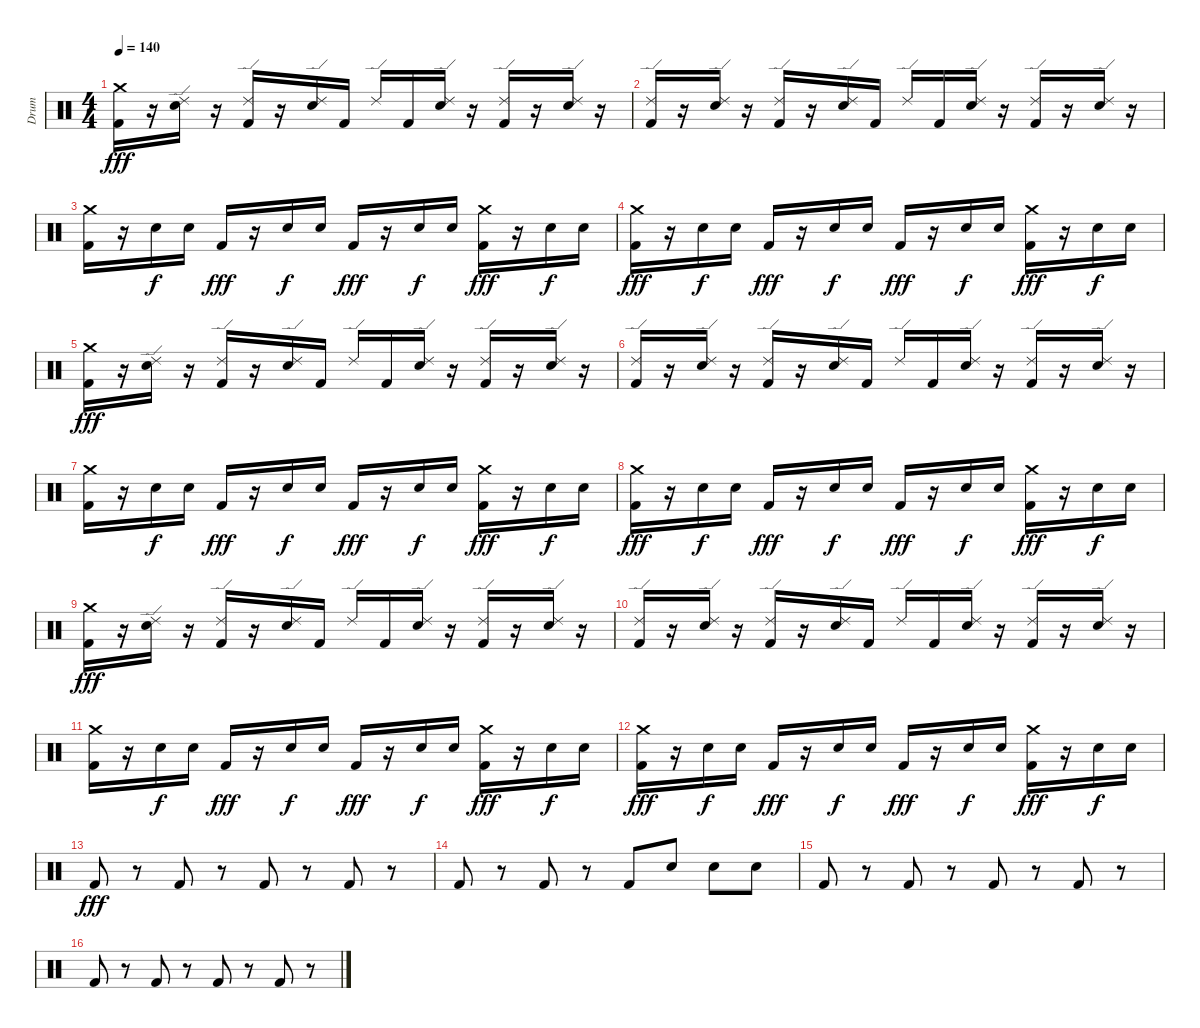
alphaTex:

\track ("Drum" "Drum") {instrument percussion}
\staff {score}
\articulation defaults
\ts (4 4)
\tempo 140
\clef neutral
\ks c
("Kick (hit) 2" "Crash medium (hit)").16{dy fff} r.16 ("Snare (hit) 2" "Ride (edge) 2").16 r.16 ("Kick (hit) 2" "Ride (edge) 2").16 r.16 ("Snare (hit) 2" "Ride (edge) 2").16 "Kick (hit) 2".16 "Ride (edge) 2".16 "Kick (hit) 2".16 ("Snare (hit) 2" "Ride (edge) 2").16 r.16 ("Kick (hit) 2" "Ride (edge) 2").16 r.16 ("Snare (hit) 2" "Ride (edge) 2").16 r.16 |
("Kick (hit) 2" "Ride (edge) 2").16 r.16 ("Snare (hit) 2" "Ride (edge) 2").16 r.16 ("Kick (hit) 2" "Ride (edge) 2").16 r.16 ("Snare (hit) 2" "Ride (edge) 2").16 "Kick (hit) 2".16 "Ride (edge) 2".16 "Kick (hit) 2".16 ("Snare (hit) 2" "Ride (edge) 2").16 r.16 ("Kick (hit) 2" "Ride (edge) 2").16 r.16 ("Snare (hit) 2" "Ride (edge) 2").16 r.16 |
("Kick (hit) 2" "Crash medium (hit)").16 r.16 "Snare (hit) 2".16{dy f} "Snare (hit) 2".16 "Kick (hit) 2".16{dy fff} r.16 "Snare (hit) 2".16{dy f} "Snare (hit) 2".16 "Kick (hit) 2".16{dy fff} r.16 "Snare (hit) 2".16{dy f} "Snare (hit) 2".16 ("Kick (hit) 2" "Crash medium (hit)").16{dy fff} r.16 "Snare (hit) 2".16{dy f} "Snare (hit) 2".16 |
("Kick (hit) 2" "Crash medium (hit)").16{dy fff} r.16 "Snare (hit) 2".16{dy f} "Snare (hit) 2".16 "Kick (hit) 2".16{dy fff} r.16 "Snare (hit) 2".16{dy f} "Snare (hit) 2".16 "Kick (hit) 2".16{dy fff} r.16 "Snare (hit) 2".16{dy f} "Snare (hit) 2".16 ("Kick (hit) 2" "Crash medium (hit)").16{dy fff} r.16 "Snare (hit) 2".16{dy f} "Snare (hit) 2".16 |
("Kick (hit) 2" "Crash medium (hit)").16{dy fff} r.16 ("Snare (hit) 2" "Ride (edge) 2").16 r.16 ("Kick (hit) 2" "Ride (edge) 2").16 r.16 ("Snare (hit) 2" "Ride (edge) 2").16 "Kick (hit) 2".16 "Ride (edge) 2".16 "Kick (hit) 2".16 ("Snare (hit) 2" "Ride (edge) 2").16 r.16 ("Kick (hit) 2" "Ride (edge) 2").16 r.16 ("Snare (hit) 2" "Ride (edge) 2").16 r.16 |
("Kick (hit) 2" "Ride (edge) 2").16 r.16 ("Snare (hit) 2" "Ride (edge) 2").16 r.16 ("Kick (hit) 2" "Ride (edge) 2").16 r.16 ("Snare (hit) 2" "Ride (edge) 2").16 "Kick (hit) 2".16 "Ride (edge) 2".16 "Kick (hit) 2".16 ("Snare (hit) 2" "Ride (edge) 2").16 r.16 ("Kick (hit) 2" "Ride (edge) 2").16 r.16 ("Snare (hit) 2" "Ride (edge) 2").16 r.16 |
("Kick (hit) 2" "Crash medium (hit)").16 r.16 "Snare (hit) 2".16{dy f} "Snare (hit) 2".16 "Kick (hit) 2".16{dy fff} r.16 "Snare (hit) 2".16{dy f} "Snare (hit) 2".16 "Kick (hit) 2".16{dy fff} r.16 "Snare (hit) 2".16{dy f} "Snare (hit) 2".16 ("Kick (hit) 2" "Crash medium (hit)").16{dy fff} r.16 "Snare (hit) 2".16{dy f} "Snare (hit) 2".16 |
("Kick (hit) 2" "Crash medium (hit)").16{dy fff} r.16 "Snare (hit) 2".16{dy f} "Snare (hit) 2".16 "Kick (hit) 2".16{dy fff} r.16 "Snare (hit) 2".16{dy f} "Snare (hit) 2".16 "Kick (hit) 2".16{dy fff} r.16 "Snare (hit) 2".16{dy f} "Snare (hit) 2".16 ("Kick (hit) 2" "Crash medium (hit)").16{dy fff} r.16 "Snare (hit) 2".16{dy f} "Snare (hit) 2".16 |
("Kick (hit) 2" "Crash medium (hit)").16{dy fff} r.16 ("Snare (hit) 2" "Ride (edge) 2").16 r.16 ("Kick (hit) 2" "Ride (edge) 2").16 r.16 ("Snare (hit) 2" "Ride (edge) 2").16 "Kick (hit) 2".16 "Ride (edge) 2".16 "Kick (hit) 2".16 ("Snare (hit) 2" "Ride (edge) 2").16 r.16 ("Kick (hit) 2" "Ride (edge) 2").16 r.16 ("Snare (hit) 2" "Ride (edge) 2").16 r.16 |
("Kick (hit) 2" "Ride (edge) 2").16 r.16 ("Snare (hit) 2" "Ride (edge) 2").16 r.16 ("Kick (hit) 2" "Ride (edge) 2").16 r.16 ("Snare (hit) 2" "Ride (edge) 2").16 "Kick (hit) 2".16 "Ride (edge) 2".16 "Kick (hit) 2".16 ("Snare (hit) 2" "Ride (edge) 2").16 r.16 ("Kick (hit) 2" "Ride (edge) 2").16 r.16 ("Snare (hit) 2" "Ride (edge) 2").16 r.16 |
("Kick (hit) 2" "Crash medium (hit)").16 r.16 "Snare (hit) 2".16{dy f} "Snare (hit) 2".16 "Kick (hit) 2".16{dy fff} r.16 "Snare (hit) 2".16{dy f} "Snare (hit) 2".16 "Kick (hit) 2".16{dy fff} r.16 "Snare (hit) 2".16{dy f} "Snare (hit) 2".16 ("Kick (hit) 2" "Crash medium (hit)").16{dy fff} r.16 "Snare (hit) 2".16{dy f} "Snare (hit) 2".16 |
("Kick (hit) 2" "Crash medium (hit)").16{dy fff} r.16 "Snare (hit) 2".16{dy f} "Snare (hit) 2".16 "Kick (hit) 2".16{dy fff} r.16 "Snare (hit) 2".16{dy f} "Snare (hit) 2".16 "Kick (hit) 2".16{dy fff} r.16 "Snare (hit) 2".16{dy f} "Snare (hit) 2".16 ("Kick (hit) 2" "Crash medium (hit)").16{dy fff} r.16 "Snare (hit) 2".16{dy f} "Snare (hit) 2".16 |
"Kick (hit) 2".8{dy fff} r.8 "Kick (hit) 2".8 r.8 "Kick (hit) 2".8 r.8 "Kick (hit) 2".8 r.8 |
"Kick (hit) 2".8 r.8 "Kick (hit) 2".8 r.8 "Kick (hit) 2".8 "Snare (hit) 2".8 "Snare (hit) 2".8 "Snare (hit) 2".8 |
"Kick (hit) 2".8 r.8 "Kick (hit) 2".8 r.8 "Kick (hit) 2".8 r.8 "Kick (hit) 2".8 r.8 |
"Kick (hit) 2".8 r.8 "Kick (hit) 2".8 r.8 "Kick (hit) 2".8 r.8 "Kick (hit) 2".8 r.8
